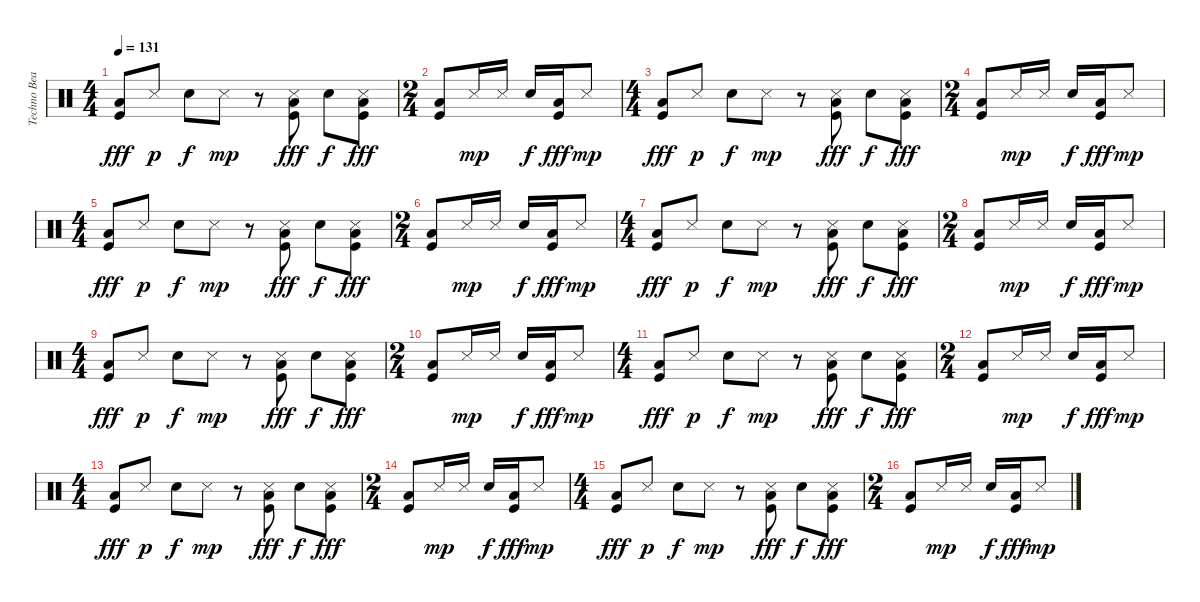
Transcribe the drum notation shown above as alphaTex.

\track ("Techno Beat" "Techno Bea") {instrument percussion}
\staff {score}
\articulation defaults
\ts (4 4)
\tempo 131
\clef neutral
\ks c
("Low Tom (hit)" "Kick (hit)").8{dy fff} "Snare (side stick) 3".8{dy p} "Electric Snare (hit)".8{dy f} "Snare (side stick) 3".8{dy mp} r.8 ("Snare (side stick) 3" "Low Tom (hit)" "Kick (hit)").8{dy fff} "Electric Snare (hit)".8{dy f} ("Snare (side stick) 3" "Low Tom (hit)" "Kick (hit)").8{dy fff} |
\ts (2 4)
("Low Tom (hit)" "Kick (hit)").8 "Snare (side stick) 3".16{dy mp} "Snare (side stick) 3".16 "Electric Snare (hit)".16{dy f} ("Low Tom (hit)" "Kick (hit)").16{dy fff} "Snare (side stick) 3".8{dy mp} |
\ts (4 4)
("Low Tom (hit)" "Kick (hit)").8{dy fff} "Snare (side stick) 3".8{dy p} "Electric Snare (hit)".8{dy f} "Snare (side stick) 3".8{dy mp} r.8 ("Snare (side stick) 3" "Low Tom (hit)" "Kick (hit)").8{dy fff} "Electric Snare (hit)".8{dy f} ("Snare (side stick) 3" "Low Tom (hit)" "Kick (hit)").8{dy fff} |
\ts (2 4)
("Low Tom (hit)" "Kick (hit)").8 "Snare (side stick) 3".16{dy mp} "Snare (side stick) 3".16 "Electric Snare (hit)".16{dy f} ("Low Tom (hit)" "Kick (hit)").16{dy fff} "Snare (side stick) 3".8{dy mp} |
\ts (4 4)
("Low Tom (hit)" "Kick (hit)").8{dy fff} "Snare (side stick) 3".8{dy p} "Electric Snare (hit)".8{dy f} "Snare (side stick) 3".8{dy mp} r.8 ("Snare (side stick) 3" "Low Tom (hit)" "Kick (hit)").8{dy fff} "Electric Snare (hit)".8{dy f} ("Snare (side stick) 3" "Low Tom (hit)" "Kick (hit)").8{dy fff} |
\ts (2 4)
("Low Tom (hit)" "Kick (hit)").8 "Snare (side stick) 3".16{dy mp} "Snare (side stick) 3".16 "Electric Snare (hit)".16{dy f} ("Low Tom (hit)" "Kick (hit)").16{dy fff} "Snare (side stick) 3".8{dy mp} |
\ts (4 4)
("Low Tom (hit)" "Kick (hit)").8{dy fff} "Snare (side stick) 3".8{dy p} "Electric Snare (hit)".8{dy f} "Snare (side stick) 3".8{dy mp} r.8 ("Snare (side stick) 3" "Low Tom (hit)" "Kick (hit)").8{dy fff} "Electric Snare (hit)".8{dy f} ("Snare (side stick) 3" "Low Tom (hit)" "Kick (hit)").8{dy fff} |
\ts (2 4)
("Low Tom (hit)" "Kick (hit)").8 "Snare (side stick) 3".16{dy mp} "Snare (side stick) 3".16 "Electric Snare (hit)".16{dy f} ("Low Tom (hit)" "Kick (hit)").16{dy fff} "Snare (side stick) 3".8{dy mp} |
\ts (4 4)
("Low Tom (hit)" "Kick (hit)").8{dy fff} "Snare (side stick) 3".8{dy p} "Electric Snare (hit)".8{dy f} "Snare (side stick) 3".8{dy mp} r.8 ("Snare (side stick) 3" "Low Tom (hit)" "Kick (hit)").8{dy fff} "Electric Snare (hit)".8{dy f} ("Snare (side stick) 3" "Low Tom (hit)" "Kick (hit)").8{dy fff} |
\ts (2 4)
("Low Tom (hit)" "Kick (hit)").8 "Snare (side stick) 3".16{dy mp} "Snare (side stick) 3".16 "Electric Snare (hit)".16{dy f} ("Low Tom (hit)" "Kick (hit)").16{dy fff} "Snare (side stick) 3".8{dy mp} |
\ts (4 4)
("Low Tom (hit)" "Kick (hit)").8{dy fff} "Snare (side stick) 3".8{dy p} "Electric Snare (hit)".8{dy f} "Snare (side stick) 3".8{dy mp} r.8 ("Snare (side stick) 3" "Low Tom (hit)" "Kick (hit)").8{dy fff} "Electric Snare (hit)".8{dy f} ("Snare (side stick) 3" "Low Tom (hit)" "Kick (hit)").8{dy fff} |
\ts (2 4)
("Low Tom (hit)" "Kick (hit)").8 "Snare (side stick) 3".16{dy mp} "Snare (side stick) 3".16 "Electric Snare (hit)".16{dy f} ("Low Tom (hit)" "Kick (hit)").16{dy fff} "Snare (side stick) 3".8{dy mp} |
\ts (4 4)
("Low Tom (hit)" "Kick (hit)").8{dy fff} "Snare (side stick) 3".8{dy p} "Electric Snare (hit)".8{dy f} "Snare (side stick) 3".8{dy mp} r.8 ("Snare (side stick) 3" "Low Tom (hit)" "Kick (hit)").8{dy fff} "Electric Snare (hit)".8{dy f} ("Snare (side stick) 3" "Low Tom (hit)" "Kick (hit)").8{dy fff} |
\ts (2 4)
("Low Tom (hit)" "Kick (hit)").8 "Snare (side stick) 3".16{dy mp} "Snare (side stick) 3".16 "Electric Snare (hit)".16{dy f} ("Low Tom (hit)" "Kick (hit)").16{dy fff} "Snare (side stick) 3".8{dy mp} |
\ts (4 4)
("Low Tom (hit)" "Kick (hit)").8{dy fff} "Snare (side stick) 3".8{dy p} "Electric Snare (hit)".8{dy f} "Snare (side stick) 3".8{dy mp} r.8 ("Snare (side stick) 3" "Low Tom (hit)" "Kick (hit)").8{dy fff} "Electric Snare (hit)".8{dy f} ("Snare (side stick) 3" "Low Tom (hit)" "Kick (hit)").8{dy fff} |
\ts (2 4)
("Low Tom (hit)" "Kick (hit)").8 "Snare (side stick) 3".16{dy mp} "Snare (side stick) 3".16 "Electric Snare (hit)".16{dy f} ("Low Tom (hit)" "Kick (hit)").16{dy fff} "Snare (side stick) 3".8{dy mp}
